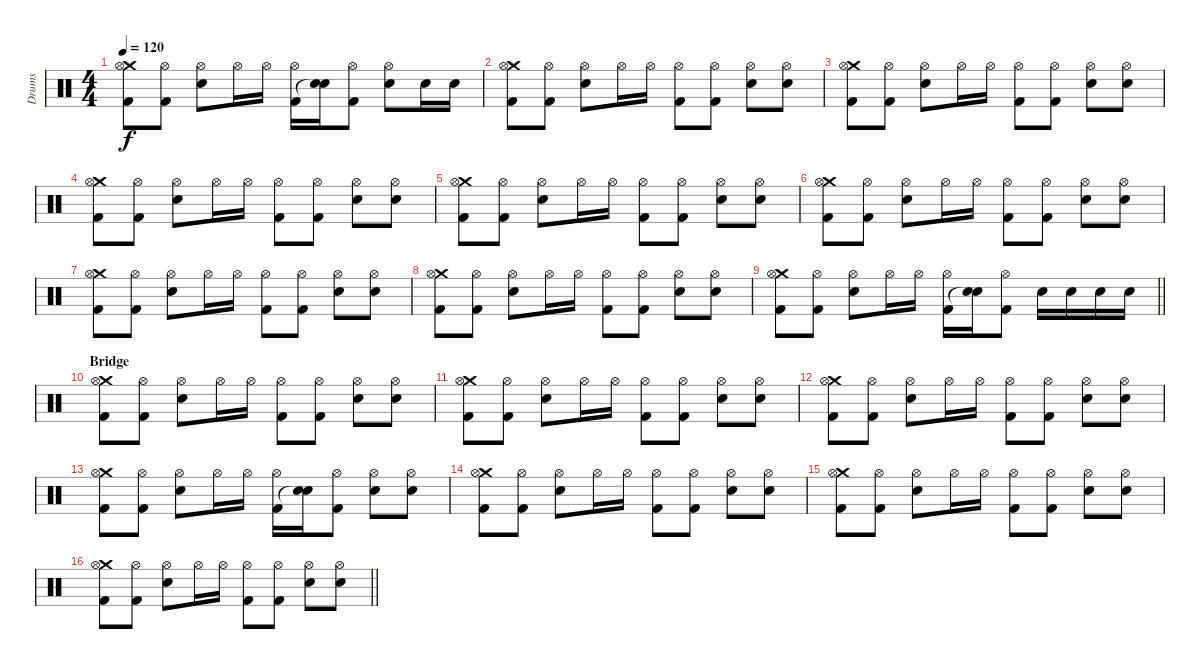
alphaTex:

\track ("Drums" "Drums") {instrument percussion}
\staff {score}
\articulation defaults
\ts (4 4)
\tempo 120
\clef neutral
\ks c
("Crash medium (hit)" "Hi-Hat (open)" "Kick (hit) 2").8{dy f} ("Hi-Hat (open)" "Kick (hit) 2").8 ("Hi-Hat (open)" "Electric Snare (hit)").8 "Hi-Hat (open)".16 "Hi-Hat (open)".16 ("Hi-Hat (open)" "Kick (hit) 2").16 ("Electric Snare (hit)" "Snare (hit)"{t}).16 ("Hi-Hat (open)" "Kick (hit) 2").8 ("Hi-Hat (open)" "Electric Snare (hit)").8 "Electric Snare (hit)".16 "Electric Snare (hit)".16 |
("Crash medium (hit)" "Hi-Hat (open)" "Kick (hit) 2").8 ("Hi-Hat (open)" "Kick (hit) 2").8 ("Hi-Hat (open)" "Electric Snare (hit)").8 "Hi-Hat (open)".16 "Hi-Hat (open)".16 ("Hi-Hat (open)" "Kick (hit) 2").8 ("Hi-Hat (open)" "Kick (hit) 2").8 ("Hi-Hat (open)" "Electric Snare (hit)").8 ("Hi-Hat (open)" "Electric Snare (hit)").8 |
("Crash medium (hit)" "Hi-Hat (open)" "Kick (hit) 2").8 ("Hi-Hat (open)" "Kick (hit) 2").8 ("Hi-Hat (open)" "Electric Snare (hit)").8 "Hi-Hat (open)".16 "Hi-Hat (open)".16 ("Hi-Hat (open)" "Kick (hit) 2").8 ("Hi-Hat (open)" "Kick (hit) 2").8 ("Hi-Hat (open)" "Electric Snare (hit)").8 ("Hi-Hat (open)" "Electric Snare (hit)").8 |
("Crash medium (hit)" "Hi-Hat (open)" "Kick (hit) 2").8 ("Hi-Hat (open)" "Kick (hit) 2").8 ("Hi-Hat (open)" "Electric Snare (hit)").8 "Hi-Hat (open)".16 "Hi-Hat (open)".16 ("Hi-Hat (open)" "Kick (hit) 2").8 ("Hi-Hat (open)" "Kick (hit) 2").8 ("Hi-Hat (open)" "Electric Snare (hit)").8 ("Hi-Hat (open)" "Electric Snare (hit)").8 |
("Crash medium (hit)" "Hi-Hat (open)" "Kick (hit) 2").8 ("Hi-Hat (open)" "Kick (hit) 2").8 ("Hi-Hat (open)" "Electric Snare (hit)").8 "Hi-Hat (open)".16 "Hi-Hat (open)".16 ("Hi-Hat (open)" "Kick (hit) 2").8 ("Hi-Hat (open)" "Kick (hit) 2").8 ("Hi-Hat (open)" "Electric Snare (hit)").8 ("Hi-Hat (open)" "Electric Snare (hit)").8 |
("Crash medium (hit)" "Hi-Hat (open)" "Kick (hit) 2").8 ("Hi-Hat (open)" "Kick (hit) 2").8 ("Hi-Hat (open)" "Electric Snare (hit)").8 "Hi-Hat (open)".16 "Hi-Hat (open)".16 ("Hi-Hat (open)" "Kick (hit) 2").8 ("Hi-Hat (open)" "Kick (hit) 2").8 ("Hi-Hat (open)" "Electric Snare (hit)").8 ("Hi-Hat (open)" "Electric Snare (hit)").8 |
("Crash medium (hit)" "Hi-Hat (open)" "Kick (hit) 2").8 ("Hi-Hat (open)" "Kick (hit) 2").8 ("Hi-Hat (open)" "Electric Snare (hit)").8 "Hi-Hat (open)".16 "Hi-Hat (open)".16 ("Hi-Hat (open)" "Kick (hit) 2").8 ("Hi-Hat (open)" "Kick (hit) 2").8 ("Hi-Hat (open)" "Electric Snare (hit)").8 ("Hi-Hat (open)" "Electric Snare (hit)").8 |
("Crash medium (hit)" "Hi-Hat (open)" "Kick (hit) 2").8 ("Hi-Hat (open)" "Kick (hit) 2").8 ("Hi-Hat (open)" "Electric Snare (hit)").8 "Hi-Hat (open)".16 "Hi-Hat (open)".16 ("Hi-Hat (open)" "Kick (hit) 2").8 ("Hi-Hat (open)" "Kick (hit) 2").8 ("Hi-Hat (open)" "Electric Snare (hit)").8 ("Hi-Hat (open)" "Electric Snare (hit)").8 |
\barLineRight lightlight
("Crash medium (hit)" "Hi-Hat (open)" "Kick (hit) 2").8 ("Hi-Hat (open)" "Kick (hit) 2").8 ("Hi-Hat (open)" "Electric Snare (hit)").8 "Hi-Hat (open)".16 "Hi-Hat (open)".16 ("Hi-Hat (open)" "Kick (hit) 2").16 ("Electric Snare (hit)" "Snare (hit)"{t}).16 ("Hi-Hat (open)" "Kick (hit) 2").8 "Electric Snare (hit)".16 "Electric Snare (hit)".16 "Electric Snare (hit)".16 "Electric Snare (hit)".16 |
\section ("" "Bridge")
("Crash medium (hit)" "Hi-Hat (open)" "Kick (hit) 2").8 ("Hi-Hat (open)" "Kick (hit) 2").8 ("Hi-Hat (open)" "Electric Snare (hit)").8 "Hi-Hat (open)".16 "Hi-Hat (open)".16 ("Hi-Hat (open)" "Kick (hit) 2").8 ("Hi-Hat (open)" "Kick (hit) 2").8 ("Hi-Hat (open)" "Electric Snare (hit)").8 ("Hi-Hat (open)" "Electric Snare (hit)").8 |
("Crash medium (hit)" "Hi-Hat (open)" "Kick (hit) 2").8 ("Hi-Hat (open)" "Kick (hit) 2").8 ("Hi-Hat (open)" "Electric Snare (hit)").8 "Hi-Hat (open)".16 "Hi-Hat (open)".16 ("Hi-Hat (open)" "Kick (hit) 2").8 ("Hi-Hat (open)" "Kick (hit) 2").8 ("Hi-Hat (open)" "Electric Snare (hit)").8 ("Hi-Hat (open)" "Electric Snare (hit)").8 |
("Crash medium (hit)" "Hi-Hat (open)" "Kick (hit) 2").8 ("Hi-Hat (open)" "Kick (hit) 2").8 ("Hi-Hat (open)" "Electric Snare (hit)").8 "Hi-Hat (open)".16 "Hi-Hat (open)".16 ("Hi-Hat (open)" "Kick (hit) 2").8 ("Hi-Hat (open)" "Kick (hit) 2").8 ("Hi-Hat (open)" "Electric Snare (hit)").8 ("Hi-Hat (open)" "Electric Snare (hit)").8 |
("Crash medium (hit)" "Hi-Hat (open)" "Kick (hit) 2").8 ("Hi-Hat (open)" "Kick (hit) 2").8 ("Hi-Hat (open)" "Electric Snare (hit)").8 "Hi-Hat (open)".16 "Hi-Hat (open)".16 ("Hi-Hat (open)" "Kick (hit) 2").16 ("Electric Snare (hit)" "Snare (hit)"{t}).16 ("Hi-Hat (open)" "Kick (hit) 2").8 ("Hi-Hat (open)" "Electric Snare (hit)").8 ("Hi-Hat (open)" "Electric Snare (hit)").8 |
("Crash medium (hit)" "Hi-Hat (open)" "Kick (hit) 2").8 ("Hi-Hat (open)" "Kick (hit) 2").8 ("Hi-Hat (open)" "Electric Snare (hit)").8 "Hi-Hat (open)".16 "Hi-Hat (open)".16 ("Hi-Hat (open)" "Kick (hit) 2").8 ("Hi-Hat (open)" "Kick (hit) 2").8 ("Hi-Hat (open)" "Electric Snare (hit)").8 ("Hi-Hat (open)" "Electric Snare (hit)").8 |
("Crash medium (hit)" "Hi-Hat (open)" "Kick (hit) 2").8 ("Hi-Hat (open)" "Kick (hit) 2").8 ("Hi-Hat (open)" "Electric Snare (hit)").8 "Hi-Hat (open)".16 "Hi-Hat (open)".16 ("Hi-Hat (open)" "Kick (hit) 2").8 ("Hi-Hat (open)" "Kick (hit) 2").8 ("Hi-Hat (open)" "Electric Snare (hit)").8 ("Hi-Hat (open)" "Electric Snare (hit)").8 |
\barLineRight lightlight
("Crash medium (hit)" "Hi-Hat (open)" "Kick (hit) 2").8 ("Hi-Hat (open)" "Kick (hit) 2").8 ("Hi-Hat (open)" "Electric Snare (hit)").8 "Hi-Hat (open)".16 "Hi-Hat (open)".16 ("Hi-Hat (open)" "Kick (hit) 2").8 ("Hi-Hat (open)" "Kick (hit) 2").8 ("Hi-Hat (open)" "Electric Snare (hit)").8 ("Hi-Hat (open)" "Electric Snare (hit)").8
